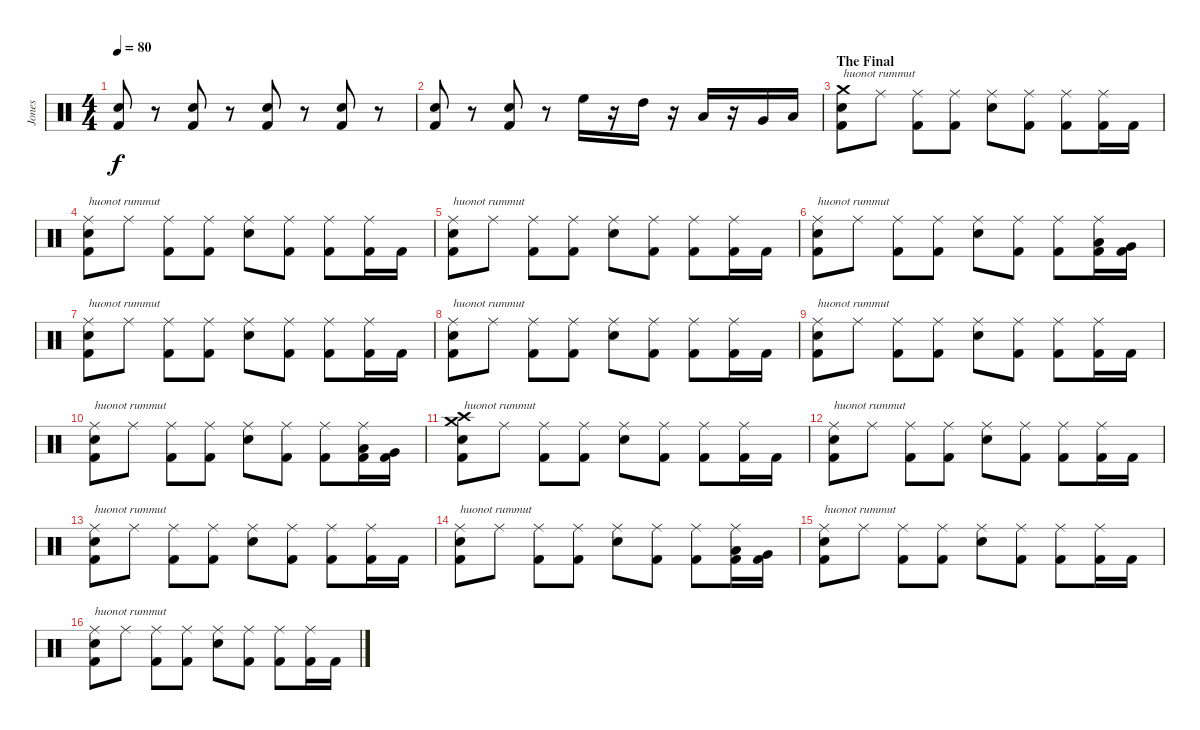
\track ("Jones" "Jones") {instrument percussion}
\staff {score}
\articulation defaults
\ts (4 4)
\tempo 80
\clef neutral
\ks c
("Snare (hit) 2" "Kick (hit) 2").8{dy f} r.8 ("Snare (hit) 2" "Kick (hit) 2").8 r.8 ("Snare (hit) 2" "Kick (hit) 2").8 r.8 ("Snare (hit) 2" "Kick (hit) 2").8 r.8 |
("Snare (hit) 2" "Kick (hit) 2").8 r.8 ("Snare (hit) 2" "Kick (hit) 2").8 r.8 "High Floor Tom (hit)".16 r.16 "High Tom (hit)".16 r.16 "Low Tom (hit)".16 r.16 "Very Low Tom (hit)".16 "Low Floor Tom (hit)".16 |
\section ("" "The Final  ")
("Crash medium (hit)" "Snare (hit) 2" "Kick (hit) 2").8{txt "huonot rummut"} "Ride (middle)".8 ("Ride (middle)" "Kick (hit) 2").8 ("Ride (middle)" "Kick (hit) 2").8 ("Ride (middle)" "Snare (hit) 2").8 ("Ride (middle)" "Kick (hit) 2").8 ("Ride (middle)" "Kick (hit) 2").8 ("Ride (middle)" "Kick (hit) 2").16 "Kick (hit) 2".16 |
("Ride (middle)" "Snare (hit) 2" "Kick (hit) 2").8{txt "huonot rummut"} "Ride (middle)".8 ("Ride (middle)" "Kick (hit) 2").8 ("Ride (middle)" "Kick (hit) 2").8 ("Ride (middle)" "Snare (hit) 2").8 ("Ride (middle)" "Kick (hit) 2").8 ("Ride (middle)" "Kick (hit) 2").8 ("Ride (middle)" "Kick (hit) 2").16 "Kick (hit) 2".16 |
("Ride (middle)" "Snare (hit) 2" "Kick (hit) 2").8{txt "huonot rummut"} "Ride (middle)".8 ("Ride (middle)" "Kick (hit) 2").8 ("Ride (middle)" "Kick (hit) 2").8 ("Ride (middle)" "Snare (hit) 2").8 ("Ride (middle)" "Kick (hit) 2").8 ("Ride (middle)" "Kick (hit) 2").8 ("Ride (middle)" "Kick (hit) 2").16 "Kick (hit) 2".16 |
("Ride (middle)" "Snare (hit) 2" "Kick (hit) 2").8{txt "huonot rummut"} "Ride (middle)".8 ("Ride (middle)" "Kick (hit) 2").8 ("Ride (middle)" "Kick (hit) 2").8 ("Ride (middle)" "Snare (hit) 2").8 ("Ride (middle)" "Kick (hit) 2").8 ("Ride (middle)" "Kick (hit) 2").8 ("Ride (middle)" "Low Tom (hit)" "Kick (hit) 2").16 ("Very Low Tom (hit)" "Kick (hit) 2").16 |
("Ride (middle)" "Snare (hit) 2" "Kick (hit) 2").8{txt "huonot rummut"} "Ride (middle)".8 ("Ride (middle)" "Kick (hit) 2").8 ("Ride (middle)" "Kick (hit) 2").8 ("Ride (middle)" "Snare (hit) 2").8 ("Ride (middle)" "Kick (hit) 2").8 ("Ride (middle)" "Kick (hit) 2").8 ("Ride (middle)" "Kick (hit) 2").16 "Kick (hit) 2".16 |
("Ride (middle)" "Snare (hit) 2" "Kick (hit) 2").8{txt "huonot rummut"} "Ride (middle)".8 ("Ride (middle)" "Kick (hit) 2").8 ("Ride (middle)" "Kick (hit) 2").8 ("Ride (middle)" "Snare (hit) 2").8 ("Ride (middle)" "Kick (hit) 2").8 ("Ride (middle)" "Kick (hit) 2").8 ("Ride (middle)" "Kick (hit) 2").16 "Kick (hit) 2".16 |
("Ride (middle)" "Snare (hit) 2" "Kick (hit) 2").8{txt "huonot rummut"} "Ride (middle)".8 ("Ride (middle)" "Kick (hit) 2").8 ("Ride (middle)" "Kick (hit) 2").8 ("Ride (middle)" "Snare (hit) 2").8 ("Ride (middle)" "Kick (hit) 2").8 ("Ride (middle)" "Kick (hit) 2").8 ("Ride (middle)" "Kick (hit) 2").16 "Kick (hit) 2".16 |
("Ride (middle)" "Snare (hit) 2" "Kick (hit) 2").8{txt "huonot rummut"} "Ride (middle)".8 ("Ride (middle)" "Kick (hit) 2").8 ("Ride (middle)" "Kick (hit) 2").8 ("Ride (middle)" "Snare (hit) 2").8 ("Ride (middle)" "Kick (hit) 2").8 ("Ride (middle)" "Kick (hit) 2").8 ("Ride (middle)" "Low Tom (hit)" "Kick (hit) 2").16 ("Very Low Tom (hit)" "Kick (hit) 2").16 |
("Crash medium (hit)" "Crash high (hit)" "Snare (hit) 2" "Kick (hit) 2").8{txt "huonot rummut"} "Ride (middle)".8 ("Ride (middle)" "Kick (hit) 2").8 ("Ride (middle)" "Kick (hit) 2").8 ("Ride (middle)" "Snare (hit) 2").8 ("Ride (middle)" "Kick (hit) 2").8 ("Ride (middle)" "Kick (hit) 2").8 ("Ride (middle)" "Kick (hit) 2").16 "Kick (hit) 2".16 |
("Ride (middle)" "Snare (hit) 2" "Kick (hit) 2").8{txt "huonot rummut"} "Ride (middle)".8 ("Ride (middle)" "Kick (hit) 2").8 ("Ride (middle)" "Kick (hit) 2").8 ("Ride (middle)" "Snare (hit) 2").8 ("Ride (middle)" "Kick (hit) 2").8 ("Ride (middle)" "Kick (hit) 2").8 ("Ride (middle)" "Kick (hit) 2").16 "Kick (hit) 2".16 |
("Ride (middle)" "Snare (hit) 2" "Kick (hit) 2").8{txt "huonot rummut"} "Ride (middle)".8 ("Ride (middle)" "Kick (hit) 2").8 ("Ride (middle)" "Kick (hit) 2").8 ("Ride (middle)" "Snare (hit) 2").8 ("Ride (middle)" "Kick (hit) 2").8 ("Ride (middle)" "Kick (hit) 2").8 ("Ride (middle)" "Kick (hit) 2").16 "Kick (hit) 2".16 |
("Ride (middle)" "Snare (hit) 2" "Kick (hit) 2").8{txt "huonot rummut"} "Ride (middle)".8 ("Ride (middle)" "Kick (hit) 2").8 ("Ride (middle)" "Kick (hit) 2").8 ("Ride (middle)" "Snare (hit) 2").8 ("Ride (middle)" "Kick (hit) 2").8 ("Ride (middle)" "Kick (hit) 2").8 ("Ride (middle)" "Low Tom (hit)" "Kick (hit) 2").16 ("Very Low Tom (hit)" "Kick (hit) 2").16 |
("Ride (middle)" "Snare (hit) 2" "Kick (hit) 2").8{txt "huonot rummut"} "Ride (middle)".8 ("Ride (middle)" "Kick (hit) 2").8 ("Ride (middle)" "Kick (hit) 2").8 ("Ride (middle)" "Snare (hit) 2").8 ("Ride (middle)" "Kick (hit) 2").8 ("Ride (middle)" "Kick (hit) 2").8 ("Ride (middle)" "Kick (hit) 2").16 "Kick (hit) 2".16 |
("Ride (middle)" "Snare (hit) 2" "Kick (hit) 2").8{txt "huonot rummut"} "Ride (middle)".8 ("Ride (middle)" "Kick (hit) 2").8 ("Ride (middle)" "Kick (hit) 2").8 ("Ride (middle)" "Snare (hit) 2").8 ("Ride (middle)" "Kick (hit) 2").8 ("Ride (middle)" "Kick (hit) 2").8 ("Ride (middle)" "Kick (hit) 2").16 "Kick (hit) 2".16
